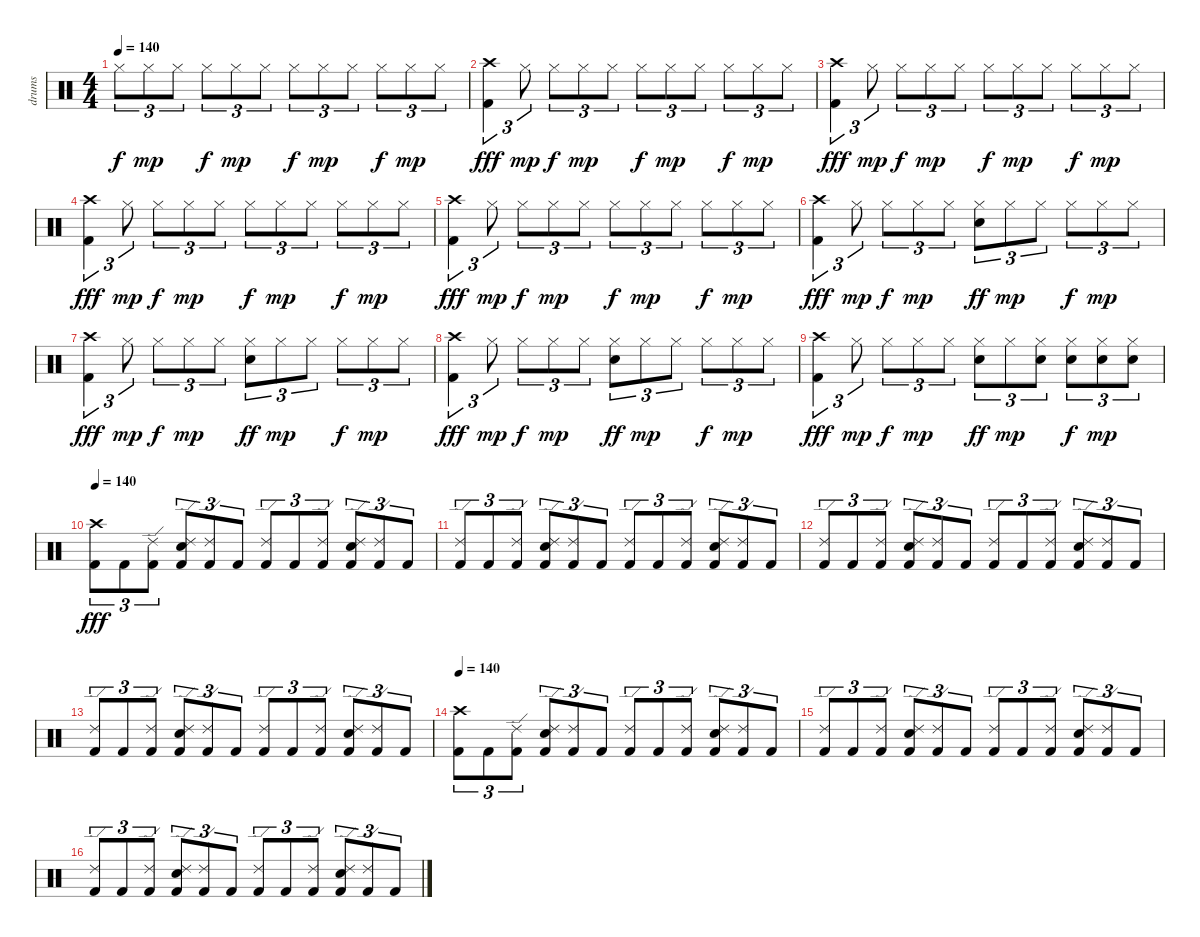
\track ("drums" "drums") {instrument percussion}
\staff {score}
\articulation defaults
\ts (4 4)
\tempo 140
\clef neutral
\ks c "Hi-Hat (closed)".8{tu (3 2) dy f} "Hi-Hat (closed)".8{tu (3 2) dy mp} "Hi-Hat (closed)".8{tu (3 2)} "Hi-Hat (closed)".8{tu (3 2) dy f} "Hi-Hat (closed)".8{tu (3 2) dy mp} "Hi-Hat (closed)".8{tu (3 2)} "Hi-Hat (closed)".8{tu (3 2) dy f} "Hi-Hat (closed)".8{tu (3 2) dy mp} "Hi-Hat (closed)".8{tu (3 2)} "Hi-Hat (closed)".8{tu (3 2) dy f} "Hi-Hat (closed)".8{tu (3 2) dy mp} "Hi-Hat (closed)".8{tu (3 2)}
|
("Crash high (hit)" "Kick (hit) 2").4{tu (3 2) dy fff} "Hi-Hat (closed)".8{tu (3 2) dy mp} "Hi-Hat (closed)".8{tu (3 2) dy f} "Hi-Hat (closed)".8{tu (3 2) dy mp} "Hi-Hat (closed)".8{tu (3 2)} "Hi-Hat (closed)".8{tu (3 2) dy f} "Hi-Hat (closed)".8{tu (3 2) dy mp} "Hi-Hat (closed)".8{tu (3 2)} "Hi-Hat (closed)".8{tu (3 2) dy f} "Hi-Hat (closed)".8{tu (3 2) dy mp} "Hi-Hat (closed)".8{tu (3 2)} |
("Crash high (hit)" "Kick (hit) 2").4{tu (3 2) dy fff} "Hi-Hat (closed)".8{tu (3 2) dy mp} "Hi-Hat (closed)".8{tu (3 2) dy f} "Hi-Hat (closed)".8{tu (3 2) dy mp} "Hi-Hat (closed)".8{tu (3 2)} "Hi-Hat (closed)".8{tu (3 2) dy f} "Hi-Hat (closed)".8{tu (3 2) dy mp} "Hi-Hat (closed)".8{tu (3 2)} "Hi-Hat (closed)".8{tu (3 2) dy f} "Hi-Hat (closed)".8{tu (3 2) dy mp} "Hi-Hat (closed)".8{tu (3 2)} |
("Crash high (hit)" "Kick (hit) 2").4{tu (3 2) dy fff} "Hi-Hat (closed)".8{tu (3 2) dy mp} "Hi-Hat (closed)".8{tu (3 2) dy f} "Hi-Hat (closed)".8{tu (3 2) dy mp} "Hi-Hat (closed)".8{tu (3 2)} "Hi-Hat (closed)".8{tu (3 2) dy f} "Hi-Hat (closed)".8{tu (3 2) dy mp} "Hi-Hat (closed)".8{tu (3 2)} "Hi-Hat (closed)".8{tu (3 2) dy f} "Hi-Hat (closed)".8{tu (3 2) dy mp} "Hi-Hat (closed)".8{tu (3 2)} |
("Crash high (hit)" "Kick (hit) 2").4{tu (3 2) dy fff} "Hi-Hat (closed)".8{tu (3 2) dy mp} "Hi-Hat (closed)".8{tu (3 2) dy f} "Hi-Hat (closed)".8{tu (3 2) dy mp} "Hi-Hat (closed)".8{tu (3 2)} "Hi-Hat (closed)".8{tu (3 2) dy f} "Hi-Hat (closed)".8{tu (3 2) dy mp} "Hi-Hat (closed)".8{tu (3 2)} "Hi-Hat (closed)".8{tu (3 2) dy f} "Hi-Hat (closed)".8{tu (3 2) dy mp} "Hi-Hat (closed)".8{tu (3 2)} |
("Crash high (hit)" "Kick (hit) 2").4{tu (3 2) dy fff} "Hi-Hat (closed)".8{tu (3 2) dy mp} "Hi-Hat (closed)".8{tu (3 2) dy f} "Hi-Hat (closed)".8{tu (3 2) dy mp} "Hi-Hat (closed)".8{tu (3 2)} ("Hi-Hat (closed)" "Snare (hit) 2").8{tu (3 2) dy ff} "Hi-Hat (closed)".8{tu (3 2) dy mp} "Hi-Hat (closed)".8{tu (3 2)} "Hi-Hat (closed)".8{tu (3 2) dy f} "Hi-Hat (closed)".8{tu (3 2) dy mp} "Hi-Hat (closed)".8{tu (3 2)} |
("Crash high (hit)" "Kick (hit) 2").4{tu (3 2) dy fff} "Hi-Hat (closed)".8{tu (3 2) dy mp} "Hi-Hat (closed)".8{tu (3 2) dy f} "Hi-Hat (closed)".8{tu (3 2) dy mp} "Hi-Hat (closed)".8{tu (3 2)} ("Hi-Hat (closed)" "Snare (hit) 2").8{tu (3 2) dy ff} "Hi-Hat (closed)".8{tu (3 2) dy mp} "Hi-Hat (closed)".8{tu (3 2)} "Hi-Hat (closed)".8{tu (3 2) dy f} "Hi-Hat (closed)".8{tu (3 2) dy mp} "Hi-Hat (closed)".8{tu (3 2)} |
("Crash high (hit)" "Kick (hit) 2").4{tu (3 2) dy fff} "Hi-Hat (closed)".8{tu (3 2) dy mp} "Hi-Hat (closed)".8{tu (3 2) dy f} "Hi-Hat (closed)".8{tu (3 2) dy mp} "Hi-Hat (closed)".8{tu (3 2)} ("Hi-Hat (closed)" "Snare (hit) 2").8{tu (3 2) dy ff} "Hi-Hat (closed)".8{tu (3 2) dy mp} "Hi-Hat (closed)".8{tu (3 2)} "Hi-Hat (closed)".8{tu (3 2) dy f} "Hi-Hat (closed)".8{tu (3 2) dy mp} "Hi-Hat (closed)".8{tu (3 2)} |
("Crash high (hit)" "Kick (hit) 2").4{tu (3 2) dy fff} "Hi-Hat (closed)".8{tu (3 2) dy mp} "Hi-Hat (closed)".8{tu (3 2) dy f} "Hi-Hat (closed)".8{tu (3 2) dy mp} "Hi-Hat (closed)".8{tu (3 2)} ("Hi-Hat (closed)" "Snare (hit) 2").8{tu (3 2) dy ff} "Hi-Hat (closed)".8{tu (3 2) dy mp} ("Hi-Hat (closed)" "Snare (hit) 2").8{tu (3 2)} ("Hi-Hat (closed)" "Snare (hit) 2").8{tu (3 2) dy f} ("Hi-Hat (closed)" "Snare (hit) 2").8{tu (3 2) dy mp} ("Hi-Hat (closed)" "Snare (hit) 2").8{tu (3 2)} |
\tempo 140
("Crash high (hit)" "Kick (hit) 2").8{tu (3 2) dy fff} "Kick (hit) 2".8{tu (3 2)} ("Ride (edge) 2" "Kick (hit) 2").8{tu (3 2)} ("Ride (edge) 2" "Snare (hit) 2" "Kick (hit) 2").8{tu (3 2)} ("Ride (edge) 2" "Kick (hit) 2").8{tu (3 2)} "Kick (hit) 2".8{tu (3 2)} ("Ride (edge) 2" "Kick (hit) 2").8{tu (3 2)} "Kick (hit) 2".8{tu (3 2)} ("Ride (edge) 2" "Kick (hit) 2").8{tu (3 2)} ("Ride (edge) 2" "Snare (hit) 2" "Kick (hit) 2").8{tu (3 2)} ("Ride (edge) 2" "Kick (hit) 2").8{tu (3 2)} "Kick (hit) 2".8{tu (3 2)} |
("Ride (edge) 2" "Kick (hit) 2").8{tu (3 2)} "Kick (hit) 2".8{tu (3 2)} ("Ride (edge) 2" "Kick (hit) 2").8{tu (3 2)} ("Ride (edge) 2" "Snare (hit) 2" "Kick (hit) 2").8{tu (3 2)} ("Ride (edge) 2" "Kick (hit) 2").8{tu (3 2)} "Kick (hit) 2".8{tu (3 2)} ("Ride (edge) 2" "Kick (hit) 2").8{tu (3 2)} "Kick (hit) 2".8{tu (3 2)} ("Ride (edge) 2" "Kick (hit) 2").8{tu (3 2)} ("Ride (edge) 2" "Snare (hit) 2" "Kick (hit) 2").8{tu (3 2)} ("Ride (edge) 2" "Kick (hit) 2").8{tu (3 2)} "Kick (hit) 2".8{tu (3 2)} |
("Ride (edge) 2" "Kick (hit) 2").8{tu (3 2)} "Kick (hit) 2".8{tu (3 2)} ("Ride (edge) 2" "Kick (hit) 2").8{tu (3 2)} ("Ride (edge) 2" "Snare (hit) 2" "Kick (hit) 2").8{tu (3 2)} ("Ride (edge) 2" "Kick (hit) 2").8{tu (3 2)} "Kick (hit) 2".8{tu (3 2)} ("Ride (edge) 2" "Kick (hit) 2").8{tu (3 2)} "Kick (hit) 2".8{tu (3 2)} ("Ride (edge) 2" "Kick (hit) 2").8{tu (3 2)} ("Ride (edge) 2" "Snare (hit) 2" "Kick (hit) 2").8{tu (3 2)} ("Ride (edge) 2" "Kick (hit) 2").8{tu (3 2)} "Kick (hit) 2".8{tu (3 2)} |
("Ride (edge) 2" "Kick (hit) 2").8{tu (3 2)} "Kick (hit) 2".8{tu (3 2)} ("Ride (edge) 2" "Kick (hit) 2").8{tu (3 2)} ("Ride (edge) 2" "Snare (hit) 2" "Kick (hit) 2").8{tu (3 2)} ("Ride (edge) 2" "Kick (hit) 2").8{tu (3 2)} "Kick (hit) 2".8{tu (3 2)} ("Ride (edge) 2" "Kick (hit) 2").8{tu (3 2)} "Kick (hit) 2".8{tu (3 2)} ("Ride (edge) 2" "Kick (hit) 2").8{tu (3 2)} ("Ride (edge) 2" "Snare (hit) 2" "Kick (hit) 2").8{tu (3 2)} ("Ride (edge) 2" "Kick (hit) 2").8{tu (3 2)} "Kick (hit) 2".8{tu (3 2)} |
\tempo 140
("Crash high (hit)" "Kick (hit) 2").8{tu (3 2)} "Kick (hit) 2".8{tu (3 2)} ("Ride (edge) 2" "Kick (hit) 2").8{tu (3 2)} ("Ride (edge) 2" "Snare (hit) 2" "Kick (hit) 2").8{tu (3 2)} ("Ride (edge) 2" "Kick (hit) 2").8{tu (3 2)} "Kick (hit) 2".8{tu (3 2)} ("Ride (edge) 2" "Kick (hit) 2").8{tu (3 2)} "Kick (hit) 2".8{tu (3 2)} ("Ride (edge) 2" "Kick (hit) 2").8{tu (3 2)} ("Ride (edge) 2" "Snare (hit) 2" "Kick (hit) 2").8{tu (3 2)} ("Ride (edge) 2" "Kick (hit) 2").8{tu (3 2)} "Kick (hit) 2".8{tu (3 2)} |
("Ride (edge) 2" "Kick (hit) 2").8{tu (3 2)} "Kick (hit) 2".8{tu (3 2)} ("Ride (edge) 2" "Kick (hit) 2").8{tu (3 2)} ("Ride (edge) 2" "Snare (hit) 2" "Kick (hit) 2").8{tu (3 2)} ("Ride (edge) 2" "Kick (hit) 2").8{tu (3 2)} "Kick (hit) 2".8{tu (3 2)} ("Ride (edge) 2" "Kick (hit) 2").8{tu (3 2)} "Kick (hit) 2".8{tu (3 2)} ("Ride (edge) 2" "Kick (hit) 2").8{tu (3 2)} ("Ride (edge) 2" "Snare (hit) 2" "Kick (hit) 2").8{tu (3 2)} ("Ride (edge) 2" "Kick (hit) 2").8{tu (3 2)} "Kick (hit) 2".8{tu (3 2)} |
("Ride (edge) 2" "Kick (hit) 2").8{tu (3 2)} "Kick (hit) 2".8{tu (3 2)} ("Ride (edge) 2" "Kick (hit) 2").8{tu (3 2)} ("Ride (edge) 2" "Snare (hit) 2" "Kick (hit) 2").8{tu (3 2)} ("Ride (edge) 2" "Kick (hit) 2").8{tu (3 2)} "Kick (hit) 2".8{tu (3 2)} ("Ride (edge) 2" "Kick (hit) 2").8{tu (3 2)} "Kick (hit) 2".8{tu (3 2)} ("Ride (edge) 2" "Kick (hit) 2").8{tu (3 2)} ("Ride (edge) 2" "Snare (hit) 2" "Kick (hit) 2").8{tu (3 2)} ("Ride (edge) 2" "Kick (hit) 2").8{tu (3 2)} "Kick (hit) 2".8{tu (3 2)}
